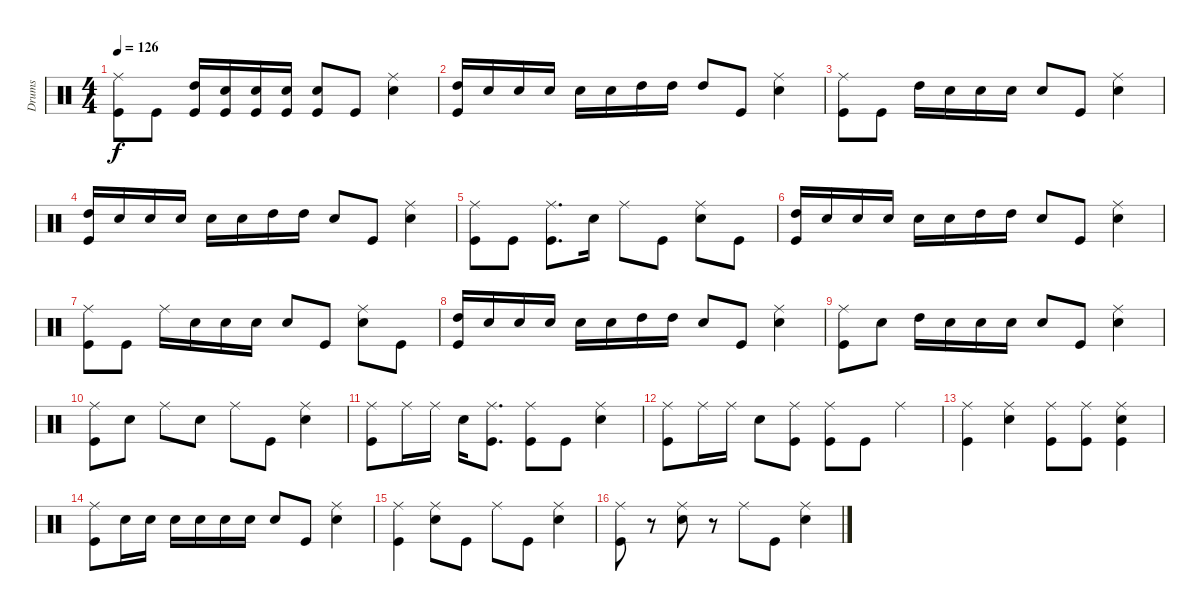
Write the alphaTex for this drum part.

\track ("Drums" "Drums") {instrument percussion}
\staff {score}
\articulation defaults
\ts (4 4)
\tempo 126
\clef neutral
\ks c
("Ride (middle)" "Kick (hit)").8{dy f} "Kick (hit)".8 ("High Tom (hit)" "Kick (hit)").16 ("Electric Snare (hit)" "Kick (hit)").16 ("Electric Snare (hit)" "Kick (hit)").16 ("Electric Snare (hit)" "Kick (hit)").16 ("Electric Snare (hit)" "Kick (hit)").8 "Kick (hit)".8 ("Ride (middle)" "Electric Snare (hit)").4 |
("High Tom (hit)" "Kick (hit)").16 "Electric Snare (hit)".16 "Electric Snare (hit)".16 "Electric Snare (hit)".16 "Electric Snare (hit)".16 "Electric Snare (hit)".16 "High Tom (hit)".16 "High Tom (hit)".16 "High Tom (hit)".8 "Kick (hit)".8 ("Ride (middle)" "Electric Snare (hit)").4 |
("Ride (middle)" "Kick (hit)").8 "Kick (hit)".8 "High Tom (hit)".16 "Electric Snare (hit)".16 "Electric Snare (hit)".16 "Electric Snare (hit)".16 "Electric Snare (hit)".8 "Kick (hit)".8 ("Ride (middle)" "Electric Snare (hit)").4 |
("High Tom (hit)" "Kick (hit)").16 "Electric Snare (hit)".16 "Electric Snare (hit)".16 "Electric Snare (hit)".16 "Electric Snare (hit)".16 "Electric Snare (hit)".16 "High Tom (hit)".16 "High Tom (hit)".16 "Electric Snare (hit)".8 "Kick (hit)".8 ("Ride (middle)" "Electric Snare (hit)").4 |
("Ride (middle)" "Kick (hit)").8 "Kick (hit)".8 ("Ride (middle)" "Kick (hit)").8{d} "Electric Snare (hit)".16 "Ride (middle)".8 "Kick (hit)".8 ("Ride (middle)" "Electric Snare (hit)").8 "Kick (hit)".8 |
("High Tom (hit)" "Kick (hit)").16 "Electric Snare (hit)".16 "Electric Snare (hit)".16 "Electric Snare (hit)".16 "Electric Snare (hit)".16 "Electric Snare (hit)".16 "High Tom (hit)".16 "High Tom (hit)".16 "Electric Snare (hit)".8 "Kick (hit)".8 ("Ride (middle)" "Electric Snare (hit)").4 |
("Ride (middle)" "Kick (hit)").8 "Kick (hit)".8 "Ride (middle)".16 "Electric Snare (hit)".16 "Electric Snare (hit)".16 "Electric Snare (hit)".16 "Electric Snare (hit)".8 "Kick (hit)".8 ("Ride (middle)" "Electric Snare (hit)").8 "Kick (hit)".8 |
("High Tom (hit)" "Kick (hit)").16 "Electric Snare (hit)".16 "Electric Snare (hit)".16 "Electric Snare (hit)".16 "Electric Snare (hit)".16 "Electric Snare (hit)".16 "High Tom (hit)".16 "High Tom (hit)".16 "Electric Snare (hit)".8 "Kick (hit)".8 ("Ride (middle)" "Electric Snare (hit)").4 |
("Ride (middle)" "Kick (hit)").8 "Electric Snare (hit)".8 "High Tom (hit)".16 "Electric Snare (hit)".16 "Electric Snare (hit)".16 "Electric Snare (hit)".16 "Electric Snare (hit)".8 "Kick (hit)".8 ("Ride (middle)" "Electric Snare (hit)").4 |
("Ride (middle)" "Kick (hit)").8 "Electric Snare (hit)".8 "Ride (middle)".8 "Electric Snare (hit)".8 "Ride (middle)".8 "Kick (hit)".8 ("Ride (middle)" "Electric Snare (hit)").4 |
("Ride (middle)" "Kick (hit)").8 "Ride (middle)".16 "Ride (middle)".16 "Electric Snare (hit)".16 ("Ride (middle)" "Kick (hit)").8{d} ("Ride (middle)" "Kick (hit)").8 "Kick (hit)".8 ("Ride (middle)" "Electric Snare (hit)").4 |
("Ride (middle)" "Kick (hit)").8 "Ride (middle)".16 "Ride (middle)".16 "Electric Snare (hit)".8 ("Ride (middle)" "Kick (hit)").8 ("Ride (middle)" "Kick (hit)").8 "Kick (hit)".8 "Ride (middle)".4 |
("Ride (middle)" "Kick (hit)").4 ("Ride (middle)" "Electric Snare (hit)").4 ("Ride (middle)" "Kick (hit)").8 ("Ride (middle)" "Kick (hit)").8 ("Ride (middle)" "Electric Snare (hit)" "Kick (hit)").4 |
("Ride (middle)" "Kick (hit)").8 "Electric Snare (hit)".16 "Electric Snare (hit)".16 "Electric Snare (hit)".16 "Electric Snare (hit)".16 "Electric Snare (hit)".16 "Electric Snare (hit)".16 "Electric Snare (hit)".8 "Kick (hit)".8 ("Ride (middle)" "Electric Snare (hit)").4 |
("Ride (middle)" "Kick (hit)").4 ("Ride (middle)" "Electric Snare (hit)").8 "Kick (hit)".8 "Ride (middle)".8 "Kick (hit)".8 ("Ride (middle)" "Electric Snare (hit)").4 |
("Ride (middle)" "Kick (hit)").8 r.8 ("Ride (middle)" "Electric Snare (hit)").8 r.8 "Ride (middle)".8 "Kick (hit)".8 ("Ride (middle)" "Electric Snare (hit)").4
